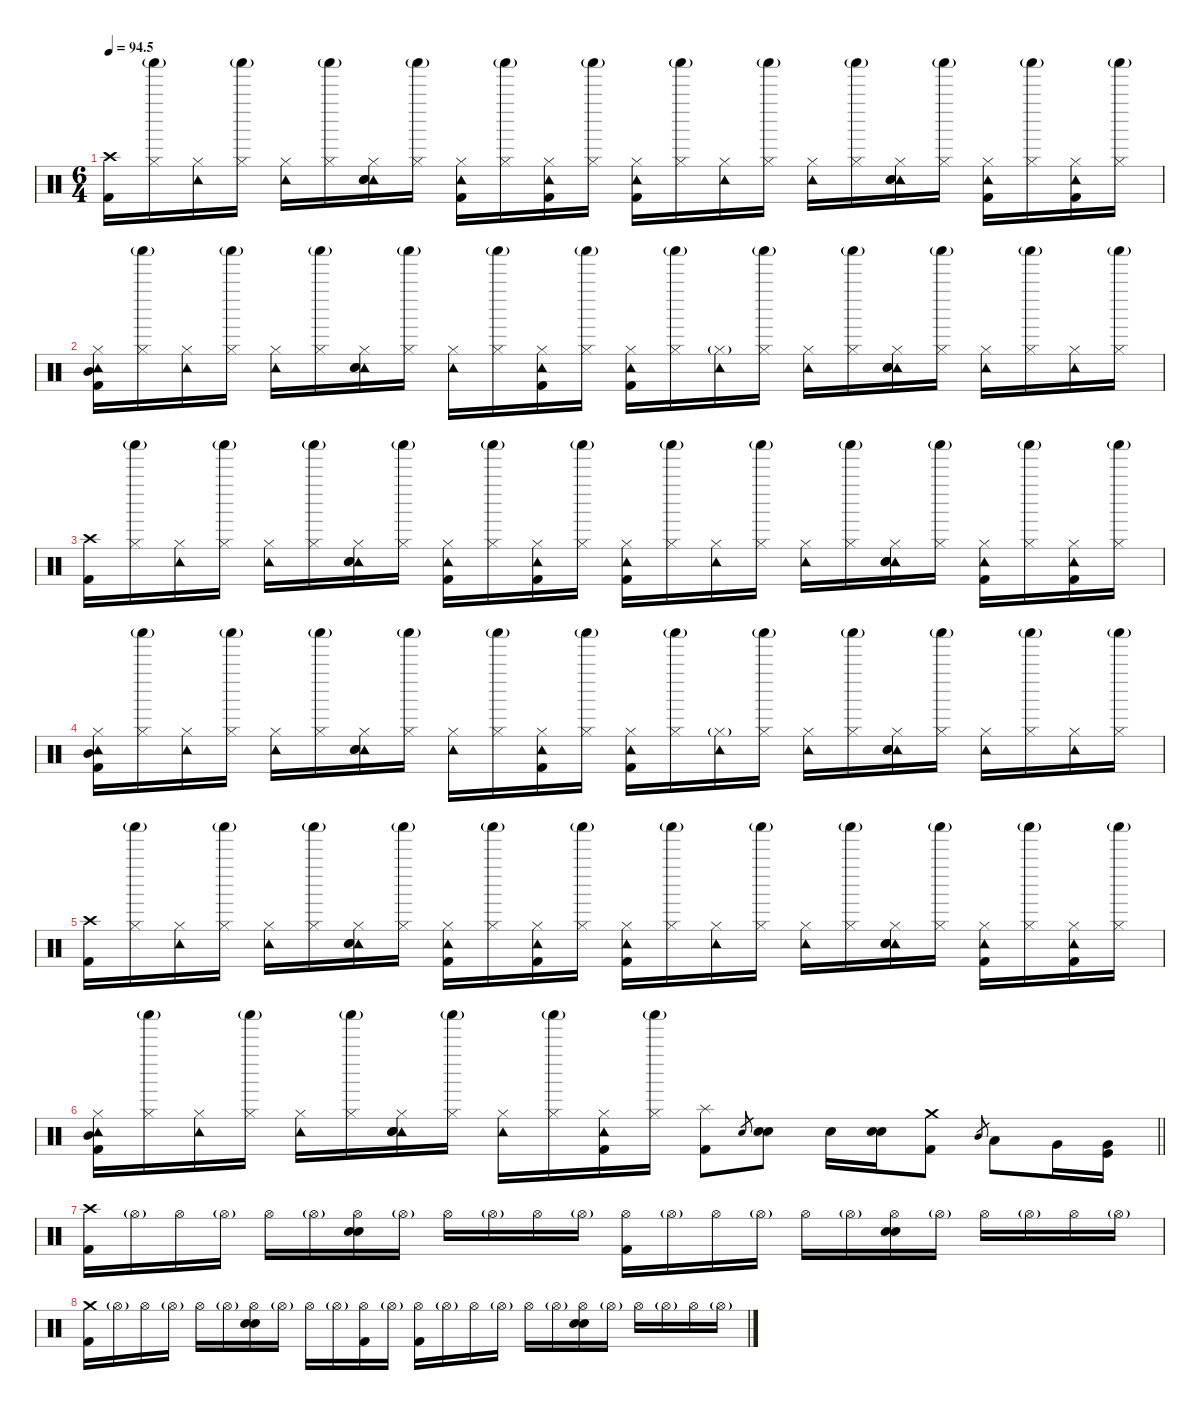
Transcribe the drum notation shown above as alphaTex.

\defaultSystemsLayout 4
\hideDynamics
\bracketExtendMode nobrackets
\singleTrackTrackNamePolicy hidden
\multiTrackTrackNamePolicy hidden
\firstSystemTrackNameMode fullname
\firstSystemTrackNameOrientation horizontal
\otherSystemsTrackNameOrientation horizontal
\track ("Drums" "drm.") {defaultSystemsLayout 2 instrument percussion}
\staff {score}
\articulation defaults
\ts (6 4)
\tempo
94.5
\accidentals auto
\clef neutral
\ottava regular
\simile none
\ks c
("Crash high (hit)" "Kick (hit) 2").16{dy fff beam Down} ("Shaker (hit)"{g} "Hi-Hat (closed)").16{dy mf beam Down} ("Hi-Hat (closed)" "Tambourine (hit)").16{dy f beam Down} ("Shaker (hit)"{g} "Hi-Hat (closed)").16{dy mf beam Down} ("Hi-Hat (closed)" "Tambourine (hit)").16{dy f beam Down} ("Shaker (hit)"{g} "Hi-Hat (closed)").16{dy mf beam Down} ("Hi-Hat (closed)" "Tambourine (hit)" "Snare (hit) 2" "Metronome (bell)").16{dy f beam Down} ("Shaker (hit)"{g} "Hi-Hat (closed)").16{dy mf beam Down} ("Hi-Hat (closed)" "Tambourine (hit)" "Kick (hit) 2").16{dy f beam Down} ("Shaker (hit)"{g} "Hi-Hat (closed)").16{dy mf beam Down} ("Hi-Hat (closed)" "Tambourine (hit)" "Kick (hit) 2").16{dy f beam Down} ("Shaker (hit)"{g} "Hi-Hat (closed)").16{dy mf beam Down} ("Hi-Hat (closed)" "Tambourine (hit)" "Kick (hit) 2").16{dy f beam Down} ("Shaker (hit)"{g} "Hi-Hat (closed)").16{dy mf beam Down} ("Hi-Hat (closed)" "Tambourine (hit)").16{dy f beam Down} ("Shaker (hit)"{g} "Hi-Hat (closed)").16{dy mf beam Down} ("Hi-Hat (closed)" "Tambourine (hit)").16{dy f beam Down} ("Shaker (hit)"{g} "Hi-Hat (closed)").16{dy mf beam Down} ("Hi-Hat (closed)" "Tambourine (hit)" "Snare (hit) 2" "Metronome (bell)").16{dy f beam Down} ("Shaker (hit)"{g} "Hi-Hat (closed)").16{dy mf beam Down} ("Hi-Hat (closed)" "Tambourine (hit)" "Kick (hit) 2").16{dy f beam Down} ("Shaker (hit)"{g} "Hi-Hat (closed)").16{dy mf beam Down} ("Hi-Hat (closed)" "Tambourine (hit)" "Kick (hit) 2").16{dy f beam Down} ("Shaker (hit)"{g} "Hi-Hat (closed)").16{dy mf beam Down} |
("Hi-Hat (closed)" "Tambourine (hit)" "Mid Tom (hit)" "Kick (hit) 2").16{dy f beam Down} ("Shaker (hit)"{g} "Hi-Hat (closed)").16{dy mf beam Down} ("Hi-Hat (closed)" "Tambourine (hit)").16{dy f beam Down} ("Shaker (hit)"{g} "Hi-Hat (closed)").16{dy mf beam Down} ("Hi-Hat (closed)" "Tambourine (hit)").16{dy f beam Down} ("Shaker (hit)"{g} "Hi-Hat (closed)").16{dy mf beam Down} ("Hi-Hat (closed)" "Tambourine (hit)" "Snare (hit) 2" "Metronome (bell)").16{dy f beam Down} ("Shaker (hit)"{g} "Hi-Hat (closed)").16{dy mf beam Down} ("Hi-Hat (closed)" "Tambourine (hit)").16{dy f beam Down} ("Shaker (hit)"{g} "Hi-Hat (closed)").16{dy mf beam Down} ("Hi-Hat (closed)" "Tambourine (hit)" "Kick (hit) 2").16{dy f beam Down} ("Shaker (hit)"{g} "Hi-Hat (closed)").16{dy mf beam Down} ("Hi-Hat (closed)" "Tambourine (hit)" "Kick (hit) 2").16{dy f beam Down} ("Shaker (hit)"{g} "Hi-Hat (closed)").16{dy mf beam Down} ("Hi-Hat (closed)"{g} "Tambourine (hit)").16{dy mp beam Down} ("Shaker (hit)"{g} "Hi-Hat (closed)").16{dy f beam Down} ("Hi-Hat (closed)" "Tambourine (hit)").16{beam Down} ("Shaker (hit)"{g} "Hi-Hat (closed)").16{dy mf beam Down} ("Hi-Hat (closed)" "Tambourine (hit)" "Snare (hit) 2" "Metronome (bell)").16{dy f beam Down} ("Shaker (hit)"{g} "Hi-Hat (closed)").16{dy mf beam Down} ("Hi-Hat (closed)" "Tambourine (hit)").16{dy f beam Down} ("Shaker (hit)"{g} "Hi-Hat (closed)").16{dy mf beam Down} ("Hi-Hat (closed)" "Tambourine (hit)").16{dy f beam Down} ("Shaker (hit)"{g} "Hi-Hat (closed)").16{dy mf beam Down} |
("Crash high (hit)" "Kick (hit) 2").16{dy fff beam Down} ("Shaker (hit)"{g} "Hi-Hat (closed)").16{dy mf beam Down} ("Hi-Hat (closed)" "Tambourine (hit)").16{dy f beam Down} ("Shaker (hit)"{g} "Hi-Hat (closed)").16{dy mf beam Down} ("Hi-Hat (closed)" "Tambourine (hit)").16{dy f beam Down} ("Shaker (hit)"{g} "Hi-Hat (closed)").16{dy mf beam Down} ("Hi-Hat (closed)" "Tambourine (hit)" "Snare (hit) 2" "Metronome (bell)").16{dy f beam Down} ("Shaker (hit)"{g} "Hi-Hat (closed)").16{dy mf beam Down} ("Hi-Hat (closed)" "Tambourine (hit)" "Kick (hit) 2").16{dy f beam Down} ("Shaker (hit)"{g} "Hi-Hat (closed)").16{dy mf beam Down} ("Hi-Hat (closed)" "Tambourine (hit)" "Kick (hit) 2").16{dy f beam Down} ("Shaker (hit)"{g} "Hi-Hat (closed)").16{dy mf beam Down} ("Hi-Hat (closed)" "Tambourine (hit)" "Kick (hit) 2").16{dy f beam Down} ("Shaker (hit)"{g} "Hi-Hat (closed)").16{dy mf beam Down} ("Hi-Hat (closed)" "Tambourine (hit)").16{dy f beam Down} ("Shaker (hit)"{g} "Hi-Hat (closed)").16{dy mf beam Down} ("Hi-Hat (closed)" "Tambourine (hit)").16{dy f beam Down} ("Shaker (hit)"{g} "Hi-Hat (closed)").16{dy mf beam Down} ("Hi-Hat (closed)" "Tambourine (hit)" "Snare (hit) 2" "Metronome (bell)").16{dy f beam Down} ("Shaker (hit)"{g} "Hi-Hat (closed)").16{dy mf beam Down} ("Hi-Hat (closed)" "Tambourine (hit)" "Kick (hit) 2").16{dy f beam Down} ("Shaker (hit)"{g} "Hi-Hat (closed)").16{dy mf beam Down} ("Hi-Hat (closed)" "Tambourine (hit)" "Kick (hit) 2").16{dy f beam Down} ("Shaker (hit)"{g} "Hi-Hat (closed)").16{dy mf beam Down} |
("Hi-Hat (closed)" "Tambourine (hit)" "Mid Tom (hit)" "Kick (hit) 2").16{dy f beam Down} ("Shaker (hit)"{g} "Hi-Hat (closed)").16{dy mf beam Down} ("Hi-Hat (closed)" "Tambourine (hit)").16{dy f beam Down} ("Shaker (hit)"{g} "Hi-Hat (closed)").16{dy mf beam Down} ("Hi-Hat (closed)" "Tambourine (hit)").16{dy f beam Down} ("Shaker (hit)"{g} "Hi-Hat (closed)").16{dy mf beam Down} ("Hi-Hat (closed)" "Tambourine (hit)" "Snare (hit) 2" "Metronome (bell)").16{dy f beam Down} ("Shaker (hit)"{g} "Hi-Hat (closed)").16{dy mf beam Down} ("Hi-Hat (closed)" "Tambourine (hit)").16{dy f beam Down} ("Shaker (hit)"{g} "Hi-Hat (closed)").16{dy mf beam Down} ("Hi-Hat (closed)" "Tambourine (hit)" "Kick (hit) 2").16{dy f beam Down} ("Shaker (hit)"{g} "Hi-Hat (closed)").16{dy mf beam Down} ("Hi-Hat (closed)" "Tambourine (hit)" "Kick (hit) 2").16{dy f beam Down} ("Shaker (hit)"{g} "Hi-Hat (closed)").16{dy mf beam Down} ("Hi-Hat (closed)"{g} "Tambourine (hit)").16{dy mp beam Down} ("Shaker (hit)"{g} "Hi-Hat (closed)").16{dy f beam Down} ("Hi-Hat (closed)" "Tambourine (hit)").16{beam Down} ("Shaker (hit)"{g} "Hi-Hat (closed)").16{dy mf beam Down} ("Hi-Hat (closed)" "Tambourine (hit)" "Snare (hit) 2" "Metronome (bell)").16{dy f beam Down} ("Shaker (hit)"{g} "Hi-Hat (closed)").16{dy mf beam Down} ("Hi-Hat (closed)" "Tambourine (hit)").16{dy f beam Down} ("Shaker (hit)"{g} "Hi-Hat (closed)").16{dy mf beam Down} ("Hi-Hat (closed)" "Tambourine (hit)").16{dy f beam Down} ("Shaker (hit)"{g} "Hi-Hat (closed)").16{dy mf beam Down} |
("Crash high (hit)" "Kick (hit) 2").16{dy fff beam Down} ("Shaker (hit)"{g} "Hi-Hat (closed)").16{dy mf beam Down} ("Hi-Hat (closed)" "Tambourine (hit)").16{dy f beam Down} ("Shaker (hit)"{g} "Hi-Hat (closed)").16{dy mf beam Down} ("Hi-Hat (closed)" "Tambourine (hit)").16{dy f beam Down} ("Shaker (hit)"{g} "Hi-Hat (closed)").16{dy mf beam Down} ("Hi-Hat (closed)" "Tambourine (hit)" "Snare (hit) 2" "Metronome (bell)").16{dy f beam Down} ("Shaker (hit)"{g} "Hi-Hat (closed)").16{dy mf beam Down} ("Hi-Hat (closed)" "Tambourine (hit)" "Kick (hit) 2").16{dy f beam Down} ("Shaker (hit)"{g} "Hi-Hat (closed)").16{dy mf beam Down} ("Hi-Hat (closed)" "Tambourine (hit)" "Kick (hit) 2").16{dy f beam Down} ("Shaker (hit)"{g} "Hi-Hat (closed)").16{dy mf beam Down} ("Hi-Hat (closed)" "Tambourine (hit)" "Kick (hit) 2").16{dy f beam Down} ("Shaker (hit)"{g} "Hi-Hat (closed)").16{dy mf beam Down} ("Hi-Hat (closed)" "Tambourine (hit)").16{dy f beam Down} ("Shaker (hit)"{g} "Hi-Hat (closed)").16{dy mf beam Down} ("Hi-Hat (closed)" "Tambourine (hit)").16{dy f beam Down} ("Shaker (hit)"{g} "Hi-Hat (closed)").16{dy mf beam Down} ("Hi-Hat (closed)" "Tambourine (hit)" "Snare (hit) 2" "Metronome (bell)").16{dy f beam Down} ("Shaker (hit)"{g} "Hi-Hat (closed)").16{dy mf beam Down} ("Hi-Hat (closed)" "Tambourine (hit)" "Kick (hit) 2").16{dy f beam Down} ("Shaker (hit)"{g} "Hi-Hat (closed)").16{dy mf beam Down} ("Hi-Hat (closed)" "Tambourine (hit)" "Kick (hit) 2").16{dy f beam Down} ("Shaker (hit)"{g} "Hi-Hat (closed)").16{dy mf beam Down} |
\barLineRight lightlight
("Hi-Hat (closed)" "Tambourine (hit)" "Mid Tom (hit)" "Kick (hit) 2").16{dy f beam Down} ("Shaker (hit)"{g} "Hi-Hat (closed)").16{dy mf beam Down} ("Hi-Hat (closed)" "Tambourine (hit)").16{dy f beam Down} ("Shaker (hit)"{g} "Hi-Hat (closed)").16{dy mf beam Down} ("Hi-Hat (closed)" "Tambourine (hit)").16{dy f beam Down} ("Shaker (hit)"{g} "Hi-Hat (closed)").16{dy mf beam Down} ("Hi-Hat (closed)" "Tambourine (hit)" "Snare (hit) 2" "Metronome (bell)").16{dy f beam Down} ("Shaker (hit)"{g} "Hi-Hat (closed)").16{dy mf beam Down} ("Hi-Hat (closed)" "Tambourine (hit)").16{dy f beam Down} ("Shaker (hit)"{g} "Hi-Hat (closed)").16{dy mf beam Down} ("Hi-Hat (closed)" "Tambourine (hit)" "Kick (hit) 2").16{dy f beam Down} ("Shaker (hit)"{g} "Hi-Hat (closed)").16{dy mf beam Down} ("Splash (hit)" "Kick (hit) 2").8{dy fff beam Down} "Electric Snare (hit)".8{gr dy mf beam Up} ("Snare (hit) 2" "Metronome (bell)").8{dy f beam Down} "Snare (hit) 2".16{beam Down} ("Snare (hit) 2" "Metronome (bell)").16{beam Down} ("Crash medium (hit)" "Kick (hit) 2").8{dy fff beam Down} "Mid Tom (hit)".8{gr dy mf beam Up} "Low Tom (hit)".8{dy f beam Down} "Very Low Tom (hit)".16{beam Down} ("Very Low Tom (hit)" "Kick (hit)").16{beam Down} |
("Crash high (hit)" "Kick (hit) 2").16{dy fff beam Down} "Hi-Hat (open)"{g}.16{dy mf beam Down} "Hi-Hat (open)".16{beam Down} "Hi-Hat (open)"{g}.16{beam Down} "Hi-Hat (open)".16{beam Down} "Hi-Hat (open)"{g}.16{beam Down} ("Hi-Hat (open)" "Snare (hit) 2" "Metronome (bell)").16{beam Down} "Hi-Hat (open)"{g}.16{beam Down} "Hi-Hat (open)".16{beam Down} "Hi-Hat (open)"{g}.16{beam Down} "Hi-Hat (open)".16{beam Down} "Hi-Hat (open)"{g}.16{beam Down} ("Hi-Hat (open)" "Kick (hit) 2").16{beam Down} "Hi-Hat (open)"{g}.16{beam Down} "Hi-Hat (open)".16{beam Down} "Hi-Hat (open)"{g}.16{beam Down} "Hi-Hat (open)".16{beam Down} "Hi-Hat (open)"{g}.16{beam Down} ("Hi-Hat (open)" "Snare (hit) 2" "Metronome (bell)").16{beam Down} "Hi-Hat (open)"{g}.16{beam Down} "Hi-Hat (open)".16{beam Down} "Hi-Hat (open)"{g}.16{beam Down} "Hi-Hat (open)".16{beam Down} "Hi-Hat (open)"{g}.16{beam Down} |
("Crash medium (hit)" "Kick (hit) 2").16{beam Down} "Hi-Hat (open)"{g}.16{beam Down} "Hi-Hat (open)".16{beam Down} "Hi-Hat (open)"{g}.16{beam Down} "Hi-Hat (open)".16{beam Down} "Hi-Hat (open)"{g}.16{beam Down} ("Hi-Hat (open)" "Snare (hit) 2" "Metronome (bell)").16{beam Down} "Hi-Hat (open)"{g}.16{beam Down} "Hi-Hat (open)".16{beam Down} "Hi-Hat (open)"{g}.16{beam Down} ("Hi-Hat (open)" "Kick (hit) 2").16{beam Down} "Hi-Hat (open)"{g}.16{beam Down} ("Hi-Hat (open)" "Kick (hit) 2").16{beam Down} "Hi-Hat (open)"{g}.16{beam Down} "Hi-Hat (open)".16{beam Down} "Hi-Hat (open)"{g}.16{beam Down} "Hi-Hat (open)".16{beam Down} "Hi-Hat (open)"{g}.16{beam Down} ("Hi-Hat (open)" "Snare (hit) 2" "Metronome (bell)").16{beam Down} "Hi-Hat (open)"{g}.16{beam Down} "Hi-Hat (open)".16{beam Down} "Hi-Hat (open)"{g}.16{beam Down} "Hi-Hat (open)".16{beam Down} "Hi-Hat (open)"{g}.16{beam Down}
